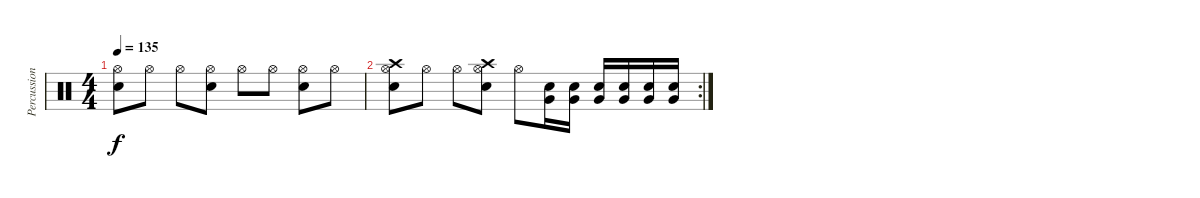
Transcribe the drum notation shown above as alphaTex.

\track ("Percussions" "Percussion") {instrument percussion}
\staff {score}
\articulation defaults
\ts (4 4)
\tempo 135
\clef neutral
\ks c
("Hi-Hat (open)" "Electric Snare (hit)").8{dy f} "Hi-Hat (open)".8 "Hi-Hat (open)".8 ("Hi-Hat (open)" "Electric Snare (hit)").8 "Hi-Hat (open)".8 "Hi-Hat (open)".8 ("Hi-Hat (open)" "Electric Snare (hit)").8 "Hi-Hat (open)".8 |
\rc 2
("Crash high (hit)" "Hi-Hat (open)" "Electric Snare (hit)").8 "Hi-Hat (open)".8 "Hi-Hat (open)".8 ("Crash high (hit)" "Hi-Hat (open)" "Electric Snare (hit)").8 "Hi-Hat (open)".8 ("Electric Snare (hit)" "Very Low Tom (hit)").16 ("Electric Snare (hit)" "Very Low Tom (hit)").16 ("Electric Snare (hit)" "Very Low Tom (hit)").16 ("Electric Snare (hit)" "Very Low Tom (hit)").16 ("Electric Snare (hit)" "Very Low Tom (hit)").16 ("Electric Snare (hit)" "Very Low Tom (hit)").16
